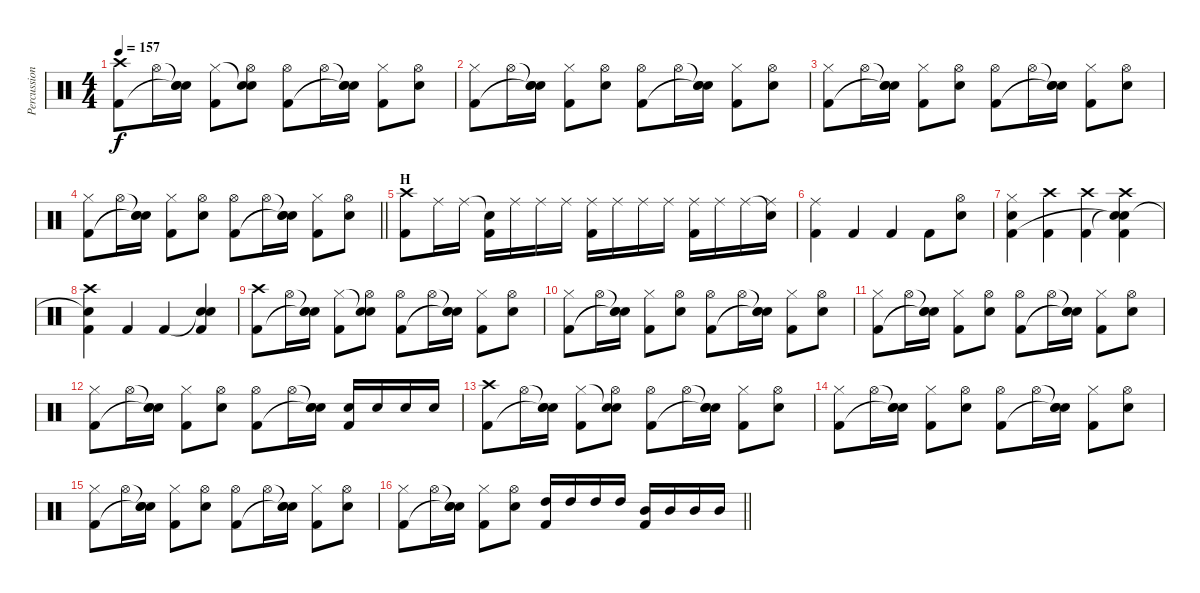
\track ("Percussion" "Percussion") {instrument percussion}
\staff {score}
\articulation defaults
\ts (4 4)
\tempo 157
\clef neutral
\ks c
("Crash high (hit)" "Kick (hit) 2").8{dy f} "Hi-Hat (open)".16 ("Snare (hit)"{t} "Snare (hit)"{t} "Electric Snare (hit)").16 ("Hi-Hat (closed)" "Kick (hit) 2").8 ("Snare (hit)"{t} "Hi-Hat (open)" "Electric Snare (hit)").8 ("Hi-Hat (open)" "Kick (hit) 2").8 "Hi-Hat (open)".16 ("Snare (hit)"{t} "Snare (hit)"{t} "Electric Snare (hit)").16 ("Hi-Hat (closed)" "Kick (hit) 2").8 ("Hi-Hat (open)" "Electric Snare (hit)").8 |
("Hi-Hat (closed)" "Kick (hit) 2").8 "Hi-Hat (open)".16 ("Snare (hit)"{t} "Snare (hit)"{t} "Electric Snare (hit)").16 ("Hi-Hat (closed)" "Kick (hit) 2").8 ("Hi-Hat (open)" "Electric Snare (hit)").8 ("Hi-Hat (open)" "Kick (hit) 2").8 "Hi-Hat (open)".16 ("Snare (hit)"{t} "Snare (hit)"{t} "Electric Snare (hit)").16 ("Hi-Hat (closed)" "Kick (hit) 2").8 ("Hi-Hat (open)" "Electric Snare (hit)").8 |
("Hi-Hat (closed)" "Kick (hit) 2").8 "Hi-Hat (open)".16 ("Snare (hit)"{t} "Snare (hit)"{t} "Electric Snare (hit)").16 ("Hi-Hat (closed)" "Kick (hit) 2").8 ("Hi-Hat (open)" "Electric Snare (hit)").8 ("Hi-Hat (open)" "Kick (hit) 2").8 "Hi-Hat (open)".16 ("Snare (hit)"{t} "Snare (hit)"{t} "Electric Snare (hit)").16 ("Hi-Hat (closed)" "Kick (hit) 2").8 ("Hi-Hat (open)" "Electric Snare (hit)").8 |
\barLineRight lightlight
("Hi-Hat (closed)" "Kick (hit) 2").8 "Hi-Hat (open)".16 ("Snare (hit)"{t} "Snare (hit)"{t} "Electric Snare (hit)").16 ("Hi-Hat (closed)" "Kick (hit) 2").8 ("Hi-Hat (open)" "Electric Snare (hit)").8 ("Hi-Hat (open)" "Kick (hit) 2").8 "Hi-Hat (open)".16 ("Snare (hit)"{t} "Snare (hit)"{t} "Electric Snare (hit)").16 ("Hi-Hat (closed)" "Kick (hit) 2").8 ("Hi-Hat (open)" "Electric Snare (hit)").8 |
\section ("" "H")
("Crash high (hit)" "Kick (hit) 2").8 "Ride (middle)".16 "Ride (middle)".16 ("Snare (hit)"{t} "Kick (hit) 2").16 "Ride (middle)".16 "Ride (middle)".16 "Ride (middle)".16 ("Ride (middle)" "Kick (hit) 2").16 "Ride (middle)".16 "Ride (middle)".16 "Ride (middle)".16 ("Ride (middle)" "Kick (hit) 2").16 "Ride (middle)".16 "Ride (middle)".16 ("Snare (hit)"{t} "Ride (middle)").16 |
("Ride (middle)" "Kick (hit) 2").4 "Kick (hit) 2".4 "Kick (hit) 2".4 "Kick (hit) 2".8 ("Hi-Hat (open)" "Electric Snare (hit)").8 |
("Hi-Hat (closed)" "Electric Snare (hit)" "Kick (hit) 2").4 ("Crash high (hit)" "Kick (hit) 2").4 ("Crash high (hit)" "Kick (hit) 2").4 ("Crash high (hit)" "Snare (hit)"{t} "Snare (hit)"{t} "Kick (hit) 2").4 |
("Crash high (hit)" "Snare (hit)"{t} "Kick (hit) 2").4 "Kick (hit) 2".4 "Kick (hit) 2".4 ("Snare (hit)"{t} "Electric Snare (hit)" "Kick (hit) 2").4 |
("Crash high (hit)" "Kick (hit) 2").8 "Hi-Hat (open)".16 ("Snare (hit)"{t} "Snare (hit)"{t} "Electric Snare (hit)").16 ("Hi-Hat (closed)" "Kick (hit) 2").8 ("Snare (hit)"{t} "Hi-Hat (open)" "Electric Snare (hit)").8 ("Hi-Hat (open)" "Kick (hit) 2").8 "Hi-Hat (open)".16 ("Snare (hit)"{t} "Snare (hit)"{t} "Electric Snare (hit)").16 ("Hi-Hat (closed)" "Kick (hit) 2").8 ("Hi-Hat (open)" "Electric Snare (hit)").8 |
("Hi-Hat (closed)" "Kick (hit) 2").8 "Hi-Hat (open)".16 ("Snare (hit)"{t} "Snare (hit)"{t} "Electric Snare (hit)").16 ("Hi-Hat (closed)" "Kick (hit) 2").8 ("Hi-Hat (open)" "Electric Snare (hit)").8 ("Hi-Hat (open)" "Kick (hit) 2").8 "Hi-Hat (open)".16 ("Snare (hit)"{t} "Snare (hit)"{t} "Electric Snare (hit)").16 ("Hi-Hat (closed)" "Kick (hit) 2").8 ("Hi-Hat (open)" "Electric Snare (hit)").8 |
("Hi-Hat (closed)" "Kick (hit) 2").8 "Hi-Hat (open)".16 ("Snare (hit)"{t} "Snare (hit)"{t} "Electric Snare (hit)").16 ("Hi-Hat (closed)" "Kick (hit) 2").8 ("Hi-Hat (open)" "Electric Snare (hit)").8 ("Hi-Hat (open)" "Kick (hit) 2").8 "Hi-Hat (open)".16 ("Snare (hit)"{t} "Snare (hit)"{t} "Electric Snare (hit)").16 ("Hi-Hat (closed)" "Kick (hit) 2").8 ("Hi-Hat (open)" "Electric Snare (hit)").8 |
("Hi-Hat (closed)" "Kick (hit) 2").8 "Hi-Hat (open)".16 ("Snare (hit)"{t} "Snare (hit)"{t} "Electric Snare (hit)").16 ("Hi-Hat (closed)" "Kick (hit) 2").8 ("Hi-Hat (open)" "Electric Snare (hit)").8 ("Hi-Hat (open)" "Kick (hit) 2").8 "Hi-Hat (open)".16 ("Snare (hit)"{t} "Snare (hit)"{t} "Electric Snare (hit)").16 ("Electric Snare (hit)" "Kick (hit) 2").16 "Electric Snare (hit)".16 "Electric Snare (hit)".16 "Electric Snare (hit)".16 |
("Crash high (hit)" "Kick (hit) 2").8 "Hi-Hat (open)".16 ("Snare (hit)"{t} "Snare (hit)"{t} "Electric Snare (hit)").16 ("Hi-Hat (closed)" "Kick (hit) 2").8 ("Snare (hit)"{t} "Hi-Hat (open)" "Electric Snare (hit)").8 ("Hi-Hat (open)" "Kick (hit) 2").8 "Hi-Hat (open)".16 ("Snare (hit)"{t} "Snare (hit)"{t} "Electric Snare (hit)").16 ("Hi-Hat (closed)" "Kick (hit) 2").8 ("Hi-Hat (open)" "Electric Snare (hit)").8 |
("Hi-Hat (closed)" "Kick (hit) 2").8 "Hi-Hat (open)".16 ("Snare (hit)"{t} "Snare (hit)"{t} "Electric Snare (hit)").16 ("Hi-Hat (closed)" "Kick (hit) 2").8 ("Hi-Hat (open)" "Electric Snare (hit)").8 ("Hi-Hat (open)" "Kick (hit) 2").8 "Hi-Hat (open)".16 ("Snare (hit)"{t} "Snare (hit)"{t} "Electric Snare (hit)").16 ("Hi-Hat (closed)" "Kick (hit) 2").8 ("Hi-Hat (open)" "Electric Snare (hit)").8 |
("Hi-Hat (closed)" "Kick (hit) 2").8 "Hi-Hat (open)".16 ("Snare (hit)"{t} "Snare (hit)"{t} "Electric Snare (hit)").16 ("Hi-Hat (closed)" "Kick (hit) 2").8 ("Hi-Hat (open)" "Electric Snare (hit)").8 ("Hi-Hat (open)" "Kick (hit) 2").8 "Hi-Hat (open)".16 ("Snare (hit)"{t} "Snare (hit)"{t} "Electric Snare (hit)").16 ("Hi-Hat (closed)" "Kick (hit) 2").8 ("Hi-Hat (open)" "Electric Snare (hit)").8 |
\barLineRight lightlight
("Hi-Hat (closed)" "Kick (hit) 2").8 "Hi-Hat (open)".16 ("Snare (hit)"{t} "Snare (hit)"{t} "Electric Snare (hit)").16 ("Hi-Hat (closed)" "Kick (hit) 2").8 ("Hi-Hat (open)" "Electric Snare (hit)").8 ("High Tom (hit)" "Kick (hit) 2").16 "High Tom (hit)".16 "High Tom (hit)".16 "High Tom (hit)".16 ("Mid Tom (hit)" "Kick (hit) 2").16 "Mid Tom (hit)".16 "Mid Tom (hit)".16 "Mid Tom (hit)".16
